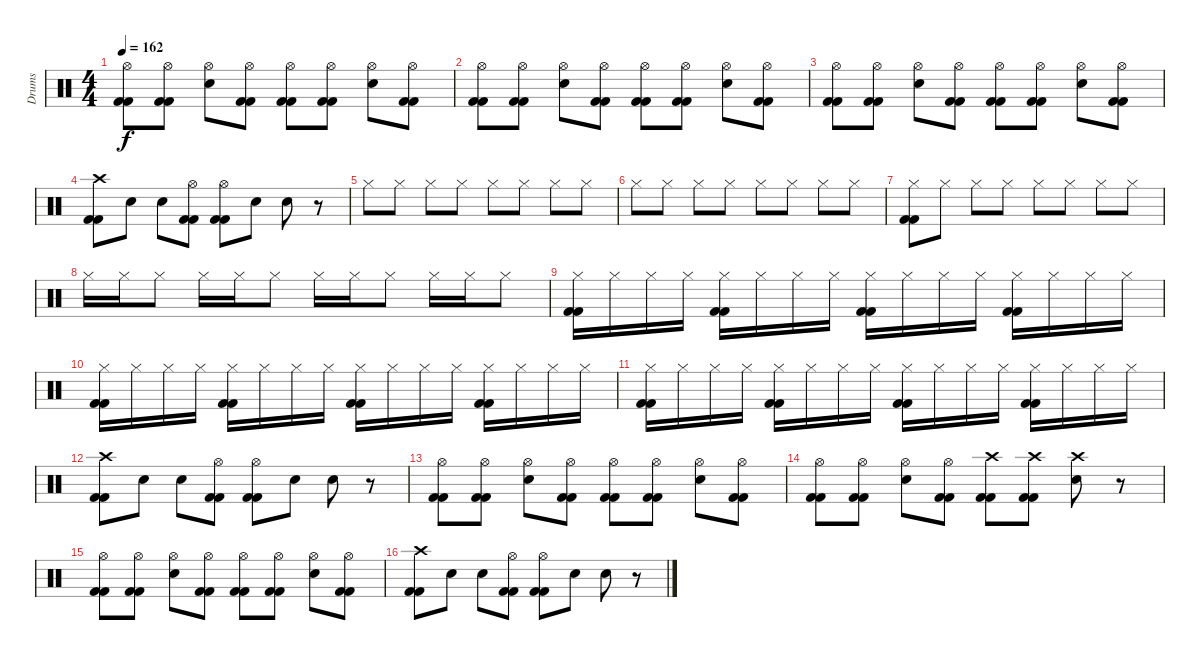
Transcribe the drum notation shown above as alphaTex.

\track ("Drums" "Drums") {instrument percussion}
\staff {score}
\articulation defaults
\ts (4 4)
\tempo 162
\clef neutral
\ks c
("Hi-Hat (open)" "Kick (hit) 2" "Kick (hit) 2").8{dy f} ("Hi-Hat (open)" "Kick (hit) 2" "Kick (hit) 2").8 ("Hi-Hat (open)" "Electric Snare (hit)").8 ("Hi-Hat (open)" "Kick (hit) 2" "Kick (hit) 2").8 ("Hi-Hat (open)" "Kick (hit) 2" "Kick (hit) 2").8 ("Hi-Hat (open)" "Kick (hit) 2" "Kick (hit) 2").8 ("Hi-Hat (open)" "Electric Snare (hit)").8 ("Hi-Hat (open)" "Kick (hit) 2" "Kick (hit) 2").8 |
("Hi-Hat (open)" "Kick (hit) 2" "Kick (hit) 2").8 ("Hi-Hat (open)" "Kick (hit) 2" "Kick (hit) 2").8 ("Hi-Hat (open)" "Electric Snare (hit)").8 ("Hi-Hat (open)" "Kick (hit) 2" "Kick (hit) 2").8 ("Hi-Hat (open)" "Kick (hit) 2" "Kick (hit) 2").8 ("Hi-Hat (open)" "Kick (hit) 2" "Kick (hit) 2").8 ("Hi-Hat (open)" "Electric Snare (hit)").8 ("Hi-Hat (open)" "Kick (hit) 2" "Kick (hit) 2").8 |
("Hi-Hat (open)" "Kick (hit) 2" "Kick (hit) 2").8 ("Hi-Hat (open)" "Kick (hit) 2" "Kick (hit) 2").8 ("Hi-Hat (open)" "Electric Snare (hit)").8 ("Hi-Hat (open)" "Kick (hit) 2" "Kick (hit) 2").8 ("Hi-Hat (open)" "Kick (hit) 2" "Kick (hit) 2").8 ("Hi-Hat (open)" "Kick (hit) 2" "Kick (hit) 2").8 ("Hi-Hat (open)" "Electric Snare (hit)").8 ("Hi-Hat (open)" "Kick (hit) 2" "Kick (hit) 2").8 |
("Crash high (hit)" "Kick (hit) 2" "Kick (hit) 2").8 "Electric Snare (hit)".8 "Electric Snare (hit)".8 ("Hi-Hat (open)" "Kick (hit) 2" "Kick (hit) 2").8 ("Hi-Hat (open)" "Kick (hit) 2" "Kick (hit) 2").8 "Electric Snare (hit)".8 "Electric Snare (hit)".8 r.8 |
"Hi-Hat (closed)".8 "Hi-Hat (closed)".8 "Hi-Hat (closed)".8 "Hi-Hat (closed)".8 "Hi-Hat (closed)".8 "Hi-Hat (closed)".8 "Hi-Hat (closed)".8 "Hi-Hat (closed)".8 |
"Hi-Hat (closed)".8 "Hi-Hat (closed)".8 "Hi-Hat (closed)".8 "Hi-Hat (closed)".8 "Hi-Hat (closed)".8 "Hi-Hat (closed)".8 "Hi-Hat (closed)".8 "Hi-Hat (closed)".8 |
("Hi-Hat (closed)" "Kick (hit) 2" "Kick (hit) 2").8 "Hi-Hat (closed)".8 "Hi-Hat (closed)".8 "Hi-Hat (closed)".8 "Hi-Hat (closed)".8 "Hi-Hat (closed)".8 "Hi-Hat (closed)".8 "Hi-Hat (closed)".8 |
"Hi-Hat (closed)".16 "Hi-Hat (closed)".16 "Hi-Hat (closed)".8 "Hi-Hat (closed)".16 "Hi-Hat (closed)".16 "Hi-Hat (closed)".8 "Hi-Hat (closed)".16 "Hi-Hat (closed)".16 "Hi-Hat (closed)".8 "Hi-Hat (closed)".16 "Hi-Hat (closed)".16 "Hi-Hat (closed)".8 |
("Hi-Hat (closed)" "Kick (hit) 2" "Kick (hit) 2").16 "Hi-Hat (closed)".16 "Hi-Hat (closed)".16 "Hi-Hat (closed)".16 ("Hi-Hat (closed)" "Kick (hit) 2" "Kick (hit) 2").16 "Hi-Hat (closed)".16 "Hi-Hat (closed)".16 "Hi-Hat (closed)".16 ("Hi-Hat (closed)" "Kick (hit) 2" "Kick (hit) 2").16 "Hi-Hat (closed)".16 "Hi-Hat (closed)".16 "Hi-Hat (closed)".16 ("Hi-Hat (closed)" "Kick (hit) 2" "Kick (hit) 2").16 "Hi-Hat (closed)".16 "Hi-Hat (closed)".16 "Hi-Hat (closed)".16 |
("Hi-Hat (closed)" "Kick (hit) 2" "Kick (hit) 2").16 "Hi-Hat (closed)".16 "Hi-Hat (closed)".16 "Hi-Hat (closed)".16 ("Hi-Hat (closed)" "Kick (hit) 2" "Kick (hit) 2").16 "Hi-Hat (closed)".16 "Hi-Hat (closed)".16 "Hi-Hat (closed)".16 ("Hi-Hat (closed)" "Kick (hit) 2" "Kick (hit) 2").16 "Hi-Hat (closed)".16 "Hi-Hat (closed)".16 "Hi-Hat (closed)".16 ("Hi-Hat (closed)" "Kick (hit) 2" "Kick (hit) 2").16 "Hi-Hat (closed)".16 "Hi-Hat (closed)".16 "Hi-Hat (closed)".16 |
("Hi-Hat (closed)" "Kick (hit) 2" "Kick (hit) 2").16 "Hi-Hat (closed)".16 "Hi-Hat (closed)".16 "Hi-Hat (closed)".16 ("Hi-Hat (closed)" "Kick (hit) 2" "Kick (hit) 2").16 "Hi-Hat (closed)".16 "Hi-Hat (closed)".16 "Hi-Hat (closed)".16 ("Hi-Hat (closed)" "Kick (hit) 2" "Kick (hit) 2").16 "Hi-Hat (closed)".16 "Hi-Hat (closed)".16 "Hi-Hat (closed)".16 ("Hi-Hat (closed)" "Kick (hit) 2" "Kick (hit) 2").16 "Hi-Hat (closed)".16 "Hi-Hat (closed)".16 "Hi-Hat (closed)".16 |
("Crash high (hit)" "Kick (hit) 2" "Kick (hit) 2").8 "Electric Snare (hit)".8 "Electric Snare (hit)".8 ("Hi-Hat (open)" "Kick (hit) 2" "Kick (hit) 2").8 ("Hi-Hat (open)" "Kick (hit) 2" "Kick (hit) 2").8 "Electric Snare (hit)".8 "Electric Snare (hit)".8 r.8 |
("Hi-Hat (open)" "Kick (hit) 2" "Kick (hit) 2").8 ("Hi-Hat (open)" "Kick (hit) 2" "Kick (hit) 2").8 ("Hi-Hat (open)" "Electric Snare (hit)").8 ("Hi-Hat (open)" "Kick (hit) 2" "Kick (hit) 2").8 ("Hi-Hat (open)" "Kick (hit) 2" "Kick (hit) 2").8 ("Hi-Hat (open)" "Kick (hit) 2" "Kick (hit) 2").8 ("Hi-Hat (open)" "Electric Snare (hit)").8 ("Hi-Hat (open)" "Kick (hit) 2" "Kick (hit) 2").8 |
("Hi-Hat (open)" "Kick (hit) 2" "Kick (hit) 2").8 ("Hi-Hat (open)" "Kick (hit) 2" "Kick (hit) 2").8 ("Hi-Hat (open)" "Electric Snare (hit)").8 ("Hi-Hat (open)" "Kick (hit) 2" "Kick (hit) 2").8 ("Crash high (hit)" "Kick (hit) 2" "Kick (hit) 2").8 ("Crash high (hit)" "Kick (hit) 2" "Kick (hit) 2").8 ("Crash high (hit)" "Electric Snare (hit)").8 r.8 |
("Hi-Hat (open)" "Kick (hit) 2" "Kick (hit) 2").8 ("Hi-Hat (open)" "Kick (hit) 2" "Kick (hit) 2").8 ("Hi-Hat (open)" "Electric Snare (hit)").8 ("Hi-Hat (open)" "Kick (hit) 2" "Kick (hit) 2").8 ("Hi-Hat (open)" "Kick (hit) 2" "Kick (hit) 2").8 ("Hi-Hat (open)" "Kick (hit) 2" "Kick (hit) 2").8 ("Hi-Hat (open)" "Electric Snare (hit)").8 ("Hi-Hat (open)" "Kick (hit) 2" "Kick (hit) 2").8 |
("Crash high (hit)" "Kick (hit) 2" "Kick (hit) 2").8 "Electric Snare (hit)".8 "Electric Snare (hit)".8 ("Hi-Hat (open)" "Kick (hit) 2" "Kick (hit) 2").8 ("Hi-Hat (open)" "Kick (hit) 2" "Kick (hit) 2").8 "Electric Snare (hit)".8 "Electric Snare (hit)".8 r.8
